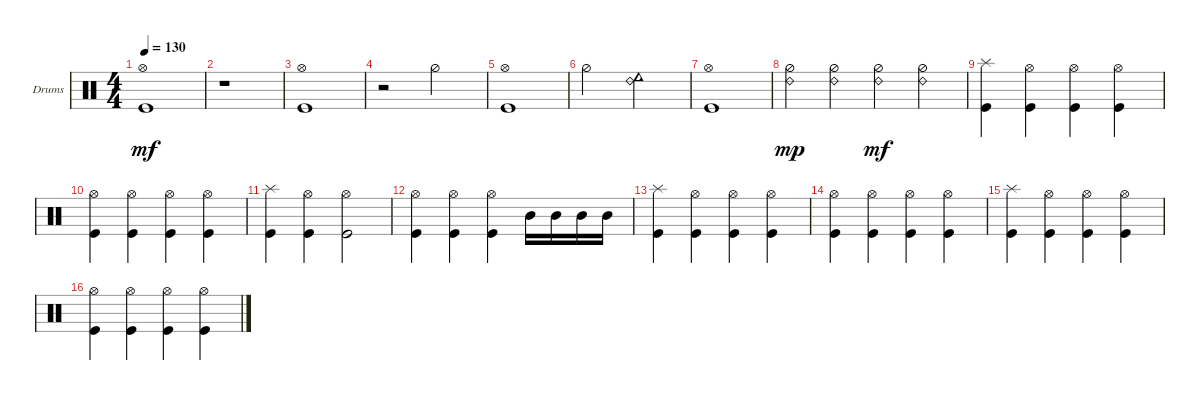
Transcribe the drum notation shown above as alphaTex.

\defaultSystemsLayout 4
\bracketExtendMode groupsimilarinstruments
\firstSystemTrackNameOrientation horizontal
\otherSystemsTrackNameOrientation horizontal
\track ("Drumkit" "Drums") {instrument percussion}
\staff {score}
\articulation defaults
\ts (4 4)
\tempo 130
\clef neutral
\scale
0.333333
\ks c
("Kick (hit)" "Hi-Hat (open)").1{dy mf} |
\scale
0.333333 r.1 |
\scale
0.333333 ("Kick (hit)" "Hi-Hat (open)").1 |
\scale
0.333333 r.2 "Hi-Hat (half)".2 |
\scale
0.333333 ("Kick (hit)" "Hi-Hat (open)").1 |
\scale
0.333333 "Hi-Hat (half)".2 ("Ride (bell) 2" "Cowbell low (hit)").2 |
\scale
0.333333 ("Kick (hit)" "Hi-Hat (open)").1 |
\scale
0.333333 ("Ride (bell) 2" "Hi-Hat (half)").4{dy mp} ("Ride (bell) 2" "Hi-Hat (half)").4 ("Ride (bell) 2" "Hi-Hat (half)").4{dy mf} ("Ride (bell) 2" "Hi-Hat (half)").4 |
\scale
0.333333 ("Kick (hit)" "Splash (hit)").4 ("Hi-Hat (open)" "Kick (hit)").4 ("Hi-Hat (open)" "Kick (hit)").4 ("Hi-Hat (open)" "Kick (hit)").4 |
\scale
0.333333 ("Hi-Hat (open)" "Kick (hit)").4 ("Hi-Hat (open)" "Kick (hit)").4 ("Hi-Hat (open)" "Kick (hit)").4 ("Hi-Hat (open)" "Kick (hit)").4 |
\scale
0.333333 ("Kick (hit)" "Splash (hit)").4 ("Hi-Hat (open)" "Kick (hit)").4 ("Hi-Hat (open)" "Kick (hit)").2 |
\scale
0.333333 ("Hi-Hat (open)" "Kick (hit)").4 ("Hi-Hat (open)" "Kick (hit)").4 ("Hi-Hat (open)" "Kick (hit)").4 "Mid Tom (hit)".16 "Mid Tom (hit)".16 "Mid Tom (hit)".16 "Mid Tom (hit)".16 |
\scale
0.333333 ("Kick (hit)" "Splash (hit)").4 ("Hi-Hat (open)" "Kick (hit)").4 ("Hi-Hat (open)" "Kick (hit)").4 ("Hi-Hat (open)" "Kick (hit)").4 |
\scale
0.333333 ("Hi-Hat (open)" "Kick (hit)").4 ("Hi-Hat (open)" "Kick (hit)").4 ("Hi-Hat (open)" "Kick (hit)").4 ("Hi-Hat (open)" "Kick (hit)").4 |
\scale
0.333333 ("Kick (hit)" "Splash (hit)").4 ("Hi-Hat (open)" "Kick (hit)").4 ("Hi-Hat (open)" "Kick (hit)").4 ("Hi-Hat (open)" "Kick (hit)").4 |
\scale
0.333333 ("Hi-Hat (open)" "Kick (hit)").4 ("Hi-Hat (open)" "Kick (hit)").4 ("Hi-Hat (open)" "Kick (hit)").4 ("Hi-Hat (open)" "Kick (hit)").4
